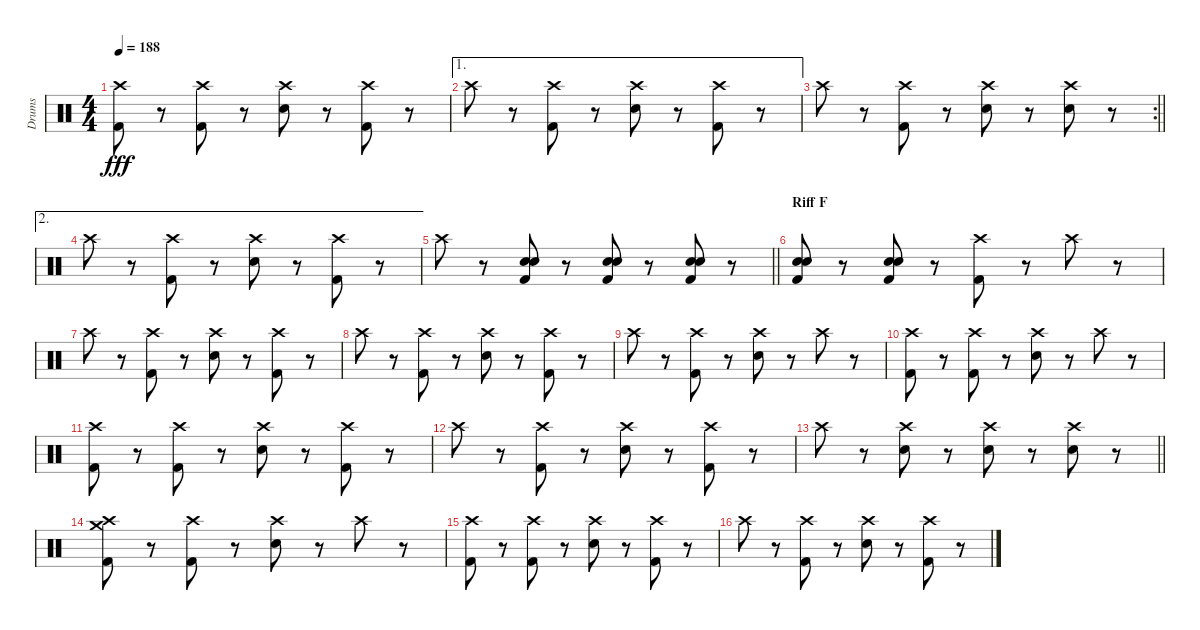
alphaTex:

\track ("Drums" "Drums") {instrument percussion}
\staff {score}
\articulation defaults
\ts (4 4)
\tempo 188
\clef neutral
\ks c
("Crash high (hit)" "Kick (hit) 2").8{dy fff} r.8 ("Crash high (hit)" "Kick (hit) 2").8 r.8 ("Crash high (hit)" "Electric Snare (hit)").8 r.8 ("Crash high (hit)" "Kick (hit) 2").8 r.8 |
\ae 1 "Crash high (hit)".8
r.8 ("Crash high (hit)" "Kick (hit) 2").8 r.8 ("Crash high (hit)" "Electric Snare (hit)").8 r.8 ("Crash high (hit)" "Kick (hit) 2").8 r.8 |
\rc 2
\barLineRight lightlight "Crash high (hit)".8
r.8 ("Crash high (hit)" "Kick (hit) 2").8 r.8 ("Crash high (hit)" "Electric Snare (hit)").8 r.8 ("Crash high (hit)" "Electric Snare (hit)").8 r.8 |
\ae 2 "Crash high (hit)".8
r.8 ("Crash high (hit)" "Kick (hit) 2").8 r.8 ("Crash high (hit)" "Electric Snare (hit)").8 r.8 ("Crash high (hit)" "Kick (hit) 2").8 r.8 |
\barLineRight lightlight "Crash high (hit)".8
r.8 ("Electric Snare (hit)" "Electric Snare (hit)" "Kick (hit) 2").8 r.8 ("Electric Snare (hit)" "Electric Snare (hit)" "Kick (hit) 2").8 r.8 ("Electric Snare (hit)" "Electric Snare (hit)" "Kick (hit) 2").8 r.8 |
\section ("" "Riff F")
("Electric Snare (hit)" "Electric Snare (hit)" "Kick (hit) 2").8 r.8 ("Electric Snare (hit)" "Electric Snare (hit)" "Kick (hit) 2").8 r.8 ("Crash high (hit)" "Kick (hit) 2").8 r.8 "Crash high (hit)".8 r.8 |
"Crash high (hit)".8 r.8 ("Crash high (hit)" "Kick (hit) 2").8 r.8 ("Crash high (hit)" "Electric Snare (hit)").8 r.8 ("Crash high (hit)" "Kick (hit) 2").8 r.8 |
"Crash high (hit)".8 r.8 ("Crash high (hit)" "Kick (hit) 2").8 r.8 ("Crash high (hit)" "Electric Snare (hit)").8 r.8 ("Crash high (hit)" "Kick (hit) 2").8 r.8 |
"Crash high (hit)".8 r.8 ("Crash high (hit)" "Kick (hit) 2").8 r.8 ("Crash high (hit)" "Electric Snare (hit)").8 r.8 "Crash high (hit)".8 r.8 |
("Crash high (hit)" "Kick (hit) 2").8 r.8 ("Crash high (hit)" "Kick (hit) 2").8 r.8 ("Crash high (hit)" "Electric Snare (hit)").8 r.8 "Crash high (hit)".8 r.8 |
("Crash high (hit)" "Kick (hit) 2").8 r.8 ("Crash high (hit)" "Kick (hit) 2").8 r.8 ("Crash high (hit)" "Electric Snare (hit)").8 r.8 ("Crash high (hit)" "Kick (hit) 2").8 r.8 |
"Crash high (hit)".8 r.8 ("Crash high (hit)" "Kick (hit) 2").8 r.8 ("Crash high (hit)" "Electric Snare (hit)").8 r.8 ("Crash high (hit)" "Kick (hit) 2").8 r.8 |
\barLineRight lightlight "Crash high (hit)".8
r.8 ("Crash high (hit)" "Electric Snare (hit)").8 r.8 ("Crash high (hit)" "Electric Snare (hit)").8 r.8 ("Crash high (hit)" "Electric Snare (hit)").8 r.8 |
("Crash medium (hit)" "Crash high (hit)" "Kick (hit) 2").8 r.8 ("Crash high (hit)" "Kick (hit) 2").8 r.8 ("Crash high (hit)" "Electric Snare (hit)").8 r.8 "Crash high (hit)".8 r.8 |
("Crash high (hit)" "Kick (hit) 2").8 r.8 ("Crash high (hit)" "Kick (hit) 2").8 r.8 ("Crash high (hit)" "Electric Snare (hit)").8 r.8 ("Crash high (hit)" "Kick (hit) 2").8 r.8 |
"Crash high (hit)".8 r.8 ("Crash high (hit)" "Kick (hit) 2").8 r.8 ("Crash high (hit)" "Electric Snare (hit)").8 r.8 ("Crash high (hit)" "Kick (hit) 2").8 r.8
